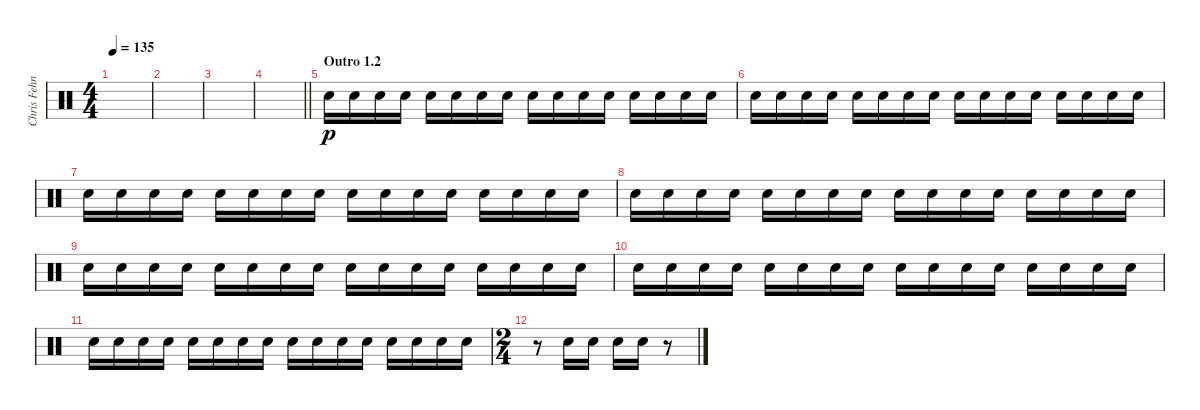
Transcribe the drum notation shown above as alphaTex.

\track ("Chris Fehn" "Chris Fehn") {instrument percussion}
\staff {score}
\articulation defaults
\ts (4 4)
\tempo 135
\clef neutral
\ks c
|
|
|
\barLineRight lightlight
|
\section ("" "Outro 1.2")
"Snare (hit) 2".16{dy p} "Snare (hit) 2".16 "Snare (hit) 2".16 "Snare (hit) 2".16 "Snare (hit) 2".16 "Snare (hit) 2".16 "Snare (hit) 2".16 "Snare (hit) 2".16 "Snare (hit) 2".16 "Snare (hit) 2".16 "Snare (hit) 2".16 "Snare (hit) 2".16 "Snare (hit) 2".16 "Snare (hit) 2".16 "Snare (hit) 2".16 "Snare (hit) 2".16 |
"Snare (hit) 2".16 "Snare (hit) 2".16 "Snare (hit) 2".16 "Snare (hit) 2".16 "Snare (hit) 2".16 "Snare (hit) 2".16 "Snare (hit) 2".16 "Snare (hit) 2".16 "Snare (hit) 2".16 "Snare (hit) 2".16 "Snare (hit) 2".16 "Snare (hit) 2".16 "Snare (hit) 2".16 "Snare (hit) 2".16 "Snare (hit) 2".16 "Snare (hit) 2".16 |
"Snare (hit) 2".16 "Snare (hit) 2".16 "Snare (hit) 2".16 "Snare (hit) 2".16 "Snare (hit) 2".16 "Snare (hit) 2".16 "Snare (hit) 2".16 "Snare (hit) 2".16 "Snare (hit) 2".16 "Snare (hit) 2".16 "Snare (hit) 2".16 "Snare (hit) 2".16 "Snare (hit) 2".16 "Snare (hit) 2".16 "Snare (hit) 2".16 "Snare (hit) 2".16 |
"Snare (hit) 2".16 "Snare (hit) 2".16 "Snare (hit) 2".16 "Snare (hit) 2".16 "Snare (hit) 2".16 "Snare (hit) 2".16 "Snare (hit) 2".16 "Snare (hit) 2".16 "Snare (hit) 2".16 "Snare (hit) 2".16 "Snare (hit) 2".16 "Snare (hit) 2".16 "Snare (hit) 2".16 "Snare (hit) 2".16 "Snare (hit) 2".16 "Snare (hit) 2".16 |
"Snare (hit) 2".16 "Snare (hit) 2".16 "Snare (hit) 2".16 "Snare (hit) 2".16 "Snare (hit) 2".16 "Snare (hit) 2".16 "Snare (hit) 2".16 "Snare (hit) 2".16 "Snare (hit) 2".16 "Snare (hit) 2".16 "Snare (hit) 2".16 "Snare (hit) 2".16 "Snare (hit) 2".16 "Snare (hit) 2".16 "Snare (hit) 2".16 "Snare (hit) 2".16 |
"Snare (hit) 2".16 "Snare (hit) 2".16 "Snare (hit) 2".16 "Snare (hit) 2".16 "Snare (hit) 2".16 "Snare (hit) 2".16 "Snare (hit) 2".16 "Snare (hit) 2".16 "Snare (hit) 2".16 "Snare (hit) 2".16 "Snare (hit) 2".16 "Snare (hit) 2".16 "Snare (hit) 2".16 "Snare (hit) 2".16 "Snare (hit) 2".16 "Snare (hit) 2".16 |
"Snare (hit) 2".16 "Snare (hit) 2".16 "Snare (hit) 2".16 "Snare (hit) 2".16 "Snare (hit) 2".16 "Snare (hit) 2".16 "Snare (hit) 2".16 "Snare (hit) 2".16 "Snare (hit) 2".16 "Snare (hit) 2".16 "Snare (hit) 2".16 "Snare (hit) 2".16 "Snare (hit) 2".16 "Snare (hit) 2".16 "Snare (hit) 2".16 "Snare (hit) 2".16 |
\ts (2 4)
r.8 "Snare (hit) 2".16 "Snare (hit) 2".16 "Snare (hit) 2".16 "Snare (hit) 2".16 r.8
